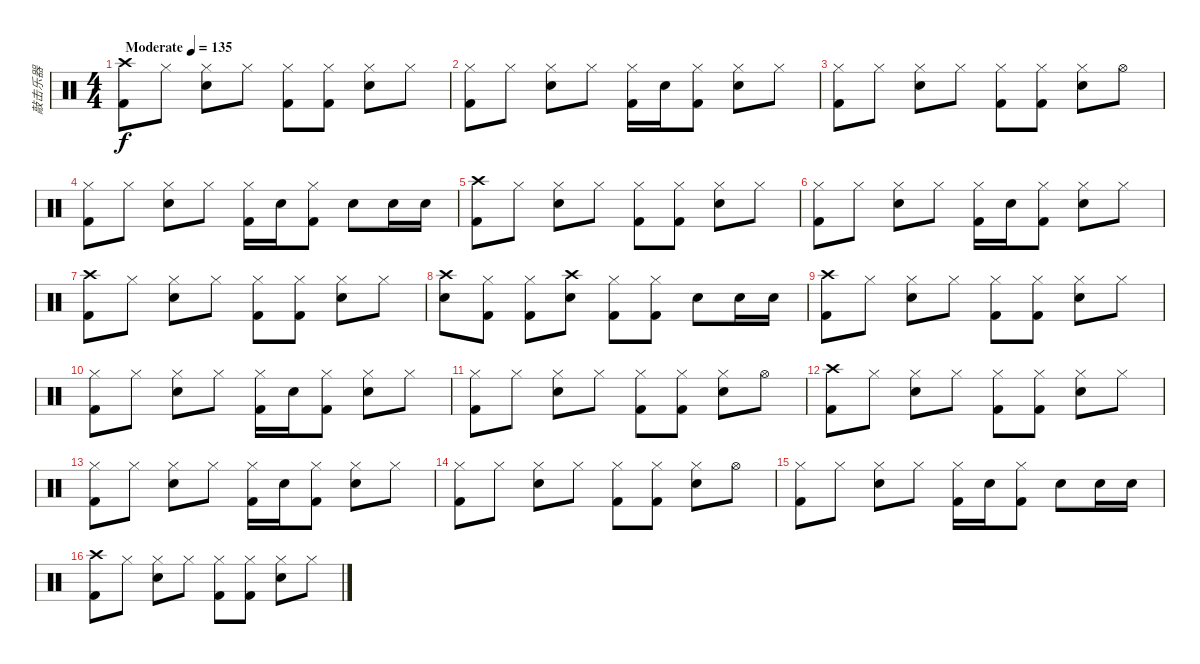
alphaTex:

\track ("敲击乐器" "敲击乐器") {instrument percussion}
\staff {score}
\articulation defaults
\ts (4 4)
\tempo (135 "Moderate")
\clef neutral
\ks c
("Crash high (hit)" "Kick (hit) 2").8{dy f} "Hi-Hat (closed)".8 ("Hi-Hat (closed)" "Electric Snare (hit)").8 "Hi-Hat (closed)".8 ("Hi-Hat (closed)" "Kick (hit) 2").8 ("Hi-Hat (closed)" "Kick (hit) 2").8 ("Hi-Hat (closed)" "Electric Snare (hit)").8 "Hi-Hat (closed)".8 |
("Hi-Hat (closed)" "Kick (hit) 2").8 "Hi-Hat (closed)".8 ("Hi-Hat (closed)" "Electric Snare (hit)").8 "Hi-Hat (closed)".8 ("Hi-Hat (closed)" "Kick (hit) 2").16 "Electric Snare (hit)".16 ("Hi-Hat (closed)" "Kick (hit) 2").8 ("Hi-Hat (closed)" "Electric Snare (hit)").8 "Hi-Hat (closed)".8 |
("Hi-Hat (closed)" "Kick (hit) 2").8 "Hi-Hat (closed)".8 ("Hi-Hat (closed)" "Electric Snare (hit)").8 "Hi-Hat (closed)".8 ("Hi-Hat (closed)" "Kick (hit) 2").8 ("Hi-Hat (closed)" "Kick (hit) 2").8 ("Hi-Hat (closed)" "Electric Snare (hit)").8 "Hi-Hat (open)".8 |
("Hi-Hat (closed)" "Kick (hit) 2").8 "Hi-Hat (closed)".8 ("Hi-Hat (closed)" "Electric Snare (hit)").8 "Hi-Hat (closed)".8 ("Hi-Hat (closed)" "Kick (hit) 2").16 "Electric Snare (hit)".16 ("Hi-Hat (closed)" "Kick (hit) 2").8 "Electric Snare (hit)".8 "Electric Snare (hit)".16 "Electric Snare (hit)".16 |
("Crash high (hit)" "Kick (hit) 2").8 "Hi-Hat (closed)".8 ("Hi-Hat (closed)" "Electric Snare (hit)").8 "Hi-Hat (closed)".8 ("Hi-Hat (closed)" "Kick (hit) 2").8 ("Hi-Hat (closed)" "Kick (hit) 2").8 ("Hi-Hat (closed)" "Electric Snare (hit)").8 "Hi-Hat (closed)".8 |
("Hi-Hat (closed)" "Kick (hit) 2").8 "Hi-Hat (closed)".8 ("Hi-Hat (closed)" "Electric Snare (hit)").8 "Hi-Hat (closed)".8 ("Hi-Hat (closed)" "Kick (hit) 2").16 "Electric Snare (hit)".16 ("Hi-Hat (closed)" "Kick (hit) 2").8 ("Hi-Hat (closed)" "Electric Snare (hit)").8 "Hi-Hat (closed)".8 |
("Crash high (hit)" "Kick (hit) 2").8 "Hi-Hat (closed)".8 ("Hi-Hat (closed)" "Electric Snare (hit)").8 "Hi-Hat (closed)".8 ("Hi-Hat (closed)" "Kick (hit) 2").8 ("Hi-Hat (closed)" "Kick (hit) 2").8 ("Hi-Hat (closed)" "Electric Snare (hit)").8 "Hi-Hat (closed)".8 |
("Crash high (hit)" "Electric Snare (hit)").8 ("Hi-Hat (closed)" "Kick (hit) 2").8 ("Hi-Hat (closed)" "Kick (hit) 2").8 ("Crash high (hit)" "Electric Snare (hit)").8 ("Hi-Hat (closed)" "Kick (hit) 2").8 ("Hi-Hat (closed)" "Kick (hit) 2").8 "Electric Snare (hit)".8 "Electric Snare (hit)".16 "Electric Snare (hit)".16 |
("Crash high (hit)" "Kick (hit) 2").8 "Hi-Hat (closed)".8 ("Hi-Hat (closed)" "Electric Snare (hit)").8 "Hi-Hat (closed)".8 ("Hi-Hat (closed)" "Kick (hit) 2").8 ("Hi-Hat (closed)" "Kick (hit) 2").8 ("Hi-Hat (closed)" "Electric Snare (hit)").8 "Hi-Hat (closed)".8 |
("Hi-Hat (closed)" "Kick (hit) 2").8 "Hi-Hat (closed)".8 ("Hi-Hat (closed)" "Electric Snare (hit)").8 "Hi-Hat (closed)".8 ("Hi-Hat (closed)" "Kick (hit) 2").16 "Electric Snare (hit)".16 ("Hi-Hat (closed)" "Kick (hit) 2").8 ("Hi-Hat (closed)" "Electric Snare (hit)").8 "Hi-Hat (closed)".8 |
("Hi-Hat (closed)" "Kick (hit) 2").8 "Hi-Hat (closed)".8 ("Hi-Hat (closed)" "Electric Snare (hit)").8 "Hi-Hat (closed)".8 ("Hi-Hat (closed)" "Kick (hit) 2").8 ("Hi-Hat (closed)" "Kick (hit) 2").8 ("Hi-Hat (closed)" "Electric Snare (hit)").8 "Hi-Hat (open)".8 |
("Crash high (hit)" "Kick (hit) 2").8 "Hi-Hat (closed)".8 ("Hi-Hat (closed)" "Electric Snare (hit)").8 "Hi-Hat (closed)".8 ("Hi-Hat (closed)" "Kick (hit) 2").8 ("Hi-Hat (closed)" "Kick (hit) 2").8 ("Hi-Hat (closed)" "Electric Snare (hit)").8 "Hi-Hat (closed)".8 |
("Hi-Hat (closed)" "Kick (hit) 2").8 "Hi-Hat (closed)".8 ("Hi-Hat (closed)" "Electric Snare (hit)").8 "Hi-Hat (closed)".8 ("Hi-Hat (closed)" "Kick (hit) 2").16 "Electric Snare (hit)".16 ("Hi-Hat (closed)" "Kick (hit) 2").8 ("Hi-Hat (closed)" "Electric Snare (hit)").8 "Hi-Hat (closed)".8 |
("Hi-Hat (closed)" "Kick (hit) 2").8 "Hi-Hat (closed)".8 ("Hi-Hat (closed)" "Electric Snare (hit)").8 "Hi-Hat (closed)".8 ("Hi-Hat (closed)" "Kick (hit) 2").8 ("Hi-Hat (closed)" "Kick (hit) 2").8 ("Hi-Hat (closed)" "Electric Snare (hit)").8 "Hi-Hat (open)".8 |
("Hi-Hat (closed)" "Kick (hit) 2").8 "Hi-Hat (closed)".8 ("Hi-Hat (closed)" "Electric Snare (hit)").8 "Hi-Hat (closed)".8 ("Hi-Hat (closed)" "Kick (hit) 2").16 "Electric Snare (hit)".16 ("Hi-Hat (closed)" "Kick (hit) 2").8 "Electric Snare (hit)".8 "Electric Snare (hit)".16 "Electric Snare (hit)".16 |
("Crash high (hit)" "Kick (hit) 2").8 "Hi-Hat (closed)".8 ("Hi-Hat (closed)" "Electric Snare (hit)").8 "Hi-Hat (closed)".8 ("Hi-Hat (closed)" "Kick (hit) 2").8 ("Hi-Hat (closed)" "Kick (hit) 2").8 ("Hi-Hat (closed)" "Electric Snare (hit)").8 "Hi-Hat (closed)".8
